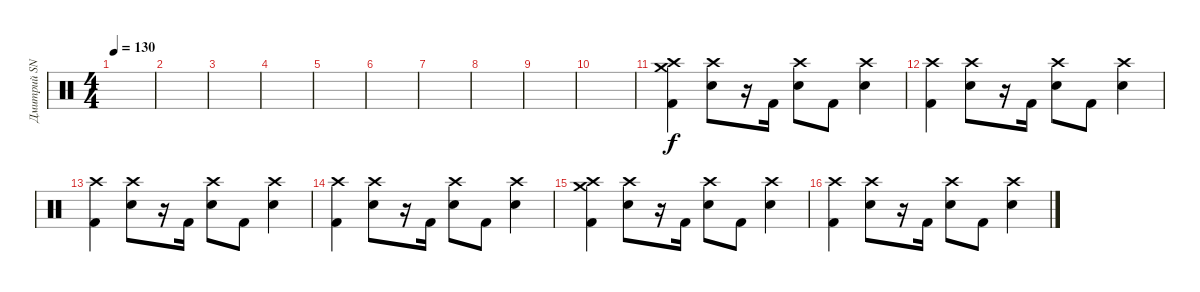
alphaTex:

\track ("Дмитрий SNAKE Хакимов" "Дмитрий SN") {instrument percussion}
\staff {score}
\articulation defaults
\ts (4 4)
\tempo 130
\clef neutral
\ks c
|
|
|
|
|
|
|
|
|
|
("Crash high (hit)" "Crash medium (hit)" "Kick (hit) 2").4 ("Crash high (hit)" "Snare (hit) 2").8 r.16 "Kick (hit) 2".16 ("Crash high (hit)" "Snare (hit) 2").8 "Kick (hit) 2".8 ("Crash high (hit)" "Snare (hit) 2").4 |
("Crash high (hit)" "Kick (hit) 2").4 ("Crash high (hit)" "Snare (hit) 2").8 r.16 "Kick (hit) 2".16 ("Crash high (hit)" "Snare (hit) 2").8 "Kick (hit) 2".8 ("Crash high (hit)" "Snare (hit) 2").4 |
("Crash high (hit)" "Kick (hit) 2").4 ("Crash high (hit)" "Snare (hit) 2").8 r.16 "Kick (hit) 2".16 ("Crash high (hit)" "Snare (hit) 2").8 "Kick (hit) 2".8 ("Crash high (hit)" "Snare (hit) 2").4 |
("Crash high (hit)" "Kick (hit) 2").4 ("Crash high (hit)" "Snare (hit) 2").8 r.16 "Kick (hit) 2".16 ("Crash high (hit)" "Snare (hit) 2").8 "Kick (hit) 2".8 ("Crash high (hit)" "Snare (hit) 2").4 |
("Crash high (hit)" "Crash medium (hit)" "Kick (hit) 2").4 ("Crash high (hit)" "Snare (hit) 2").8 r.16 "Kick (hit) 2".16 ("Crash high (hit)" "Snare (hit) 2").8 "Kick (hit) 2".8 ("Crash high (hit)" "Snare (hit) 2").4 |
("Crash high (hit)" "Kick (hit) 2").4 ("Crash high (hit)" "Snare (hit) 2").8 r.16 "Kick (hit) 2".16 ("Crash high (hit)" "Snare (hit) 2").8 "Kick (hit) 2".8 ("Crash high (hit)" "Snare (hit) 2").4
